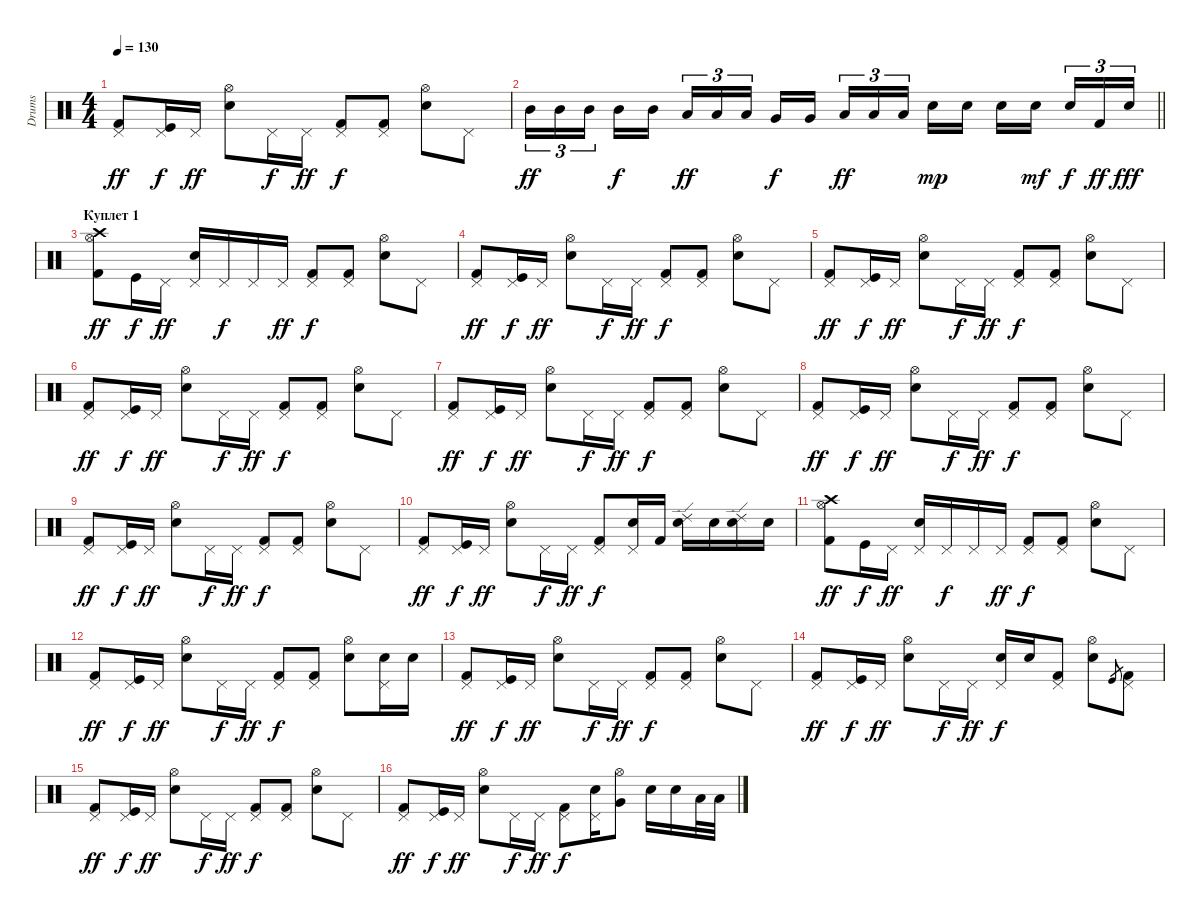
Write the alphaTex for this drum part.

\track ("Drums" "Drums") {instrument percussion}
\staff {score}
\articulation defaults
\ts (4 4)
\tempo 130
\clef neutral
\ks c
("Pedal Hi-Hat (hit)" "Kick (hit) 2").8{dy ff} ("Pedal Hi-Hat (hit)" "Kick (hit)").16{dy f} "Pedal Hi-Hat (hit)".16{dy ff} ("Hi-Hat (open)" "Snare (hit) 2").8 "Pedal Hi-Hat (hit)".16{dy f} "Pedal Hi-Hat (hit)".16{dy ff} ("Pedal Hi-Hat (hit)" "Kick (hit) 2").8{dy f} ("Pedal Hi-Hat (hit)" "Kick (hit) 2").8 ("Hi-Hat (open)" "Snare (hit) 2").8 "Pedal Hi-Hat (hit)".8 |
\barLineRight lightlight "Mid Tom (hit)".16{tu (3 2) dy ff} "Mid Tom (hit)".16{tu (3 2)} "Mid Tom (hit)".16{tu (3 2)} "Mid Tom (hit)".16{dy f} "Mid Tom (hit)".16 "Low Tom (hit)".16{tu (3 2) dy ff} "Low Tom (hit)".16{tu (3 2)} "Low Tom (hit)".16{tu (3 2)} "Very Low Tom (hit)".16{dy f} "Very Low Tom (hit)".16 "Low Tom (hit)".16{tu (3 2) dy ff} "Low Tom (hit)".16{tu (3 2)} "Low Tom (hit)".16{tu (3 2)} "Snare (hit) 2".16{dy mp} "Snare (hit) 2".16 "Snare (hit) 2".16 "Snare (hit) 2".16{dy mf} "Snare (hit) 2".16{tu (3 2) dy f} "Kick (hit) 2".16{tu (3 2) dy ff} "Snare (hit) 2".16{tu (3 2) dy fff}
|
\section ("" "Куплет 1")
("Crash high (hit)" "Kick (hit) 2" "Hi-Hat (open)").8{dy ff} "Kick (hit)".16{dy f} "Pedal Hi-Hat (hit)".16{dy ff} ("Pedal Hi-Hat (hit)" "Snare (hit) 2").16 "Pedal Hi-Hat (hit)".16{dy f} "Pedal Hi-Hat (hit)".16 "Pedal Hi-Hat (hit)".16{dy ff} ("Pedal Hi-Hat (hit)" "Kick (hit) 2").8{dy f} ("Pedal Hi-Hat (hit)" "Kick (hit) 2").8 ("Hi-Hat (open)" "Snare (hit) 2").8 "Pedal Hi-Hat (hit)".8 |
("Pedal Hi-Hat (hit)" "Kick (hit) 2").8{dy ff} ("Pedal Hi-Hat (hit)" "Kick (hit)").16{dy f} "Pedal Hi-Hat (hit)".16{dy ff} ("Hi-Hat (open)" "Snare (hit) 2").8 "Pedal Hi-Hat (hit)".16{dy f} "Pedal Hi-Hat (hit)".16{dy ff} ("Pedal Hi-Hat (hit)" "Kick (hit) 2").8{dy f} ("Pedal Hi-Hat (hit)" "Kick (hit) 2").8 ("Hi-Hat (open)" "Snare (hit) 2").8 "Pedal Hi-Hat (hit)".8 |
("Pedal Hi-Hat (hit)" "Kick (hit) 2").8{dy ff} ("Pedal Hi-Hat (hit)" "Kick (hit)").16{dy f} "Pedal Hi-Hat (hit)".16{dy ff} ("Hi-Hat (open)" "Snare (hit) 2").8 "Pedal Hi-Hat (hit)".16{dy f} "Pedal Hi-Hat (hit)".16{dy ff} ("Pedal Hi-Hat (hit)" "Kick (hit) 2").8{dy f} ("Pedal Hi-Hat (hit)" "Kick (hit) 2").8 ("Hi-Hat (open)" "Snare (hit) 2").8 "Pedal Hi-Hat (hit)".8 |
("Pedal Hi-Hat (hit)" "Kick (hit) 2").8{dy ff} ("Pedal Hi-Hat (hit)" "Kick (hit)").16{dy f} "Pedal Hi-Hat (hit)".16{dy ff} ("Hi-Hat (open)" "Snare (hit) 2").8 "Pedal Hi-Hat (hit)".16{dy f} "Pedal Hi-Hat (hit)".16{dy ff} ("Pedal Hi-Hat (hit)" "Kick (hit) 2").8{dy f} ("Pedal Hi-Hat (hit)" "Kick (hit) 2").8 ("Hi-Hat (open)" "Snare (hit) 2").8 "Pedal Hi-Hat (hit)".8 |
("Pedal Hi-Hat (hit)" "Kick (hit) 2").8{dy ff} ("Pedal Hi-Hat (hit)" "Kick (hit)").16{dy f} "Pedal Hi-Hat (hit)".16{dy ff} ("Hi-Hat (open)" "Snare (hit) 2").8 "Pedal Hi-Hat (hit)".16{dy f} "Pedal Hi-Hat (hit)".16{dy ff} ("Pedal Hi-Hat (hit)" "Kick (hit) 2").8{dy f} ("Pedal Hi-Hat (hit)" "Kick (hit) 2").8 ("Hi-Hat (open)" "Snare (hit) 2").8 "Pedal Hi-Hat (hit)".8 |
("Pedal Hi-Hat (hit)" "Kick (hit) 2").8{dy ff} ("Pedal Hi-Hat (hit)" "Kick (hit)").16{dy f} "Pedal Hi-Hat (hit)".16{dy ff} ("Hi-Hat (open)" "Snare (hit) 2").8 "Pedal Hi-Hat (hit)".16{dy f} "Pedal Hi-Hat (hit)".16{dy ff} ("Pedal Hi-Hat (hit)" "Kick (hit) 2").8{dy f} ("Pedal Hi-Hat (hit)" "Kick (hit) 2").8 ("Hi-Hat (open)" "Snare (hit) 2").8 "Pedal Hi-Hat (hit)".8 |
("Pedal Hi-Hat (hit)" "Kick (hit) 2").8{dy ff} ("Pedal Hi-Hat (hit)" "Kick (hit)").16{dy f} "Pedal Hi-Hat (hit)".16{dy ff} ("Hi-Hat (open)" "Snare (hit) 2").8 "Pedal Hi-Hat (hit)".16{dy f} "Pedal Hi-Hat (hit)".16{dy ff} ("Pedal Hi-Hat (hit)" "Kick (hit) 2").8{dy f} ("Pedal Hi-Hat (hit)" "Kick (hit) 2").8 ("Hi-Hat (open)" "Snare (hit) 2").8 "Pedal Hi-Hat (hit)".8 |
("Pedal Hi-Hat (hit)" "Kick (hit) 2").8{dy ff} ("Pedal Hi-Hat (hit)" "Kick (hit)").16{dy f} "Pedal Hi-Hat (hit)".16{dy ff} ("Hi-Hat (open)" "Snare (hit) 2").8 "Pedal Hi-Hat (hit)".16{dy f} "Pedal Hi-Hat (hit)".16{dy ff} ("Pedal Hi-Hat (hit)" "Kick (hit) 2").8{dy f} ("Pedal Hi-Hat (hit)" "Snare (hit) 2").16 "Kick (hit) 2".16 ("Ride (edge) 2" "Snare (hit) 2").16 "Snare (hit) 2".16 ("Ride (edge) 2" "Snare (hit) 2").16 "Snare (hit) 2".16 |
("Crash high (hit)" "Kick (hit) 2" "Hi-Hat (open)").8{dy ff} "Kick (hit)".16{dy f} "Pedal Hi-Hat (hit)".16{dy ff} ("Pedal Hi-Hat (hit)" "Snare (hit) 2").16 "Pedal Hi-Hat (hit)".16{dy f} "Pedal Hi-Hat (hit)".16 "Pedal Hi-Hat (hit)".16{dy ff} ("Pedal Hi-Hat (hit)" "Kick (hit) 2").8{dy f} ("Pedal Hi-Hat (hit)" "Kick (hit) 2").8 ("Hi-Hat (open)" "Snare (hit) 2").8 "Pedal Hi-Hat (hit)".8 |
("Pedal Hi-Hat (hit)" "Kick (hit) 2").8{dy ff} ("Pedal Hi-Hat (hit)" "Kick (hit)").16{dy f} "Pedal Hi-Hat (hit)".16{dy ff} ("Hi-Hat (open)" "Snare (hit) 2").8 "Pedal Hi-Hat (hit)".16{dy f} "Pedal Hi-Hat (hit)".16{dy ff} ("Pedal Hi-Hat (hit)" "Kick (hit) 2").8{dy f} ("Pedal Hi-Hat (hit)" "Kick (hit) 2").8 ("Hi-Hat (open)" "Snare (hit) 2").8 ("Pedal Hi-Hat (hit)" "Snare (hit) 2").16 "Snare (hit) 2".16 |
("Pedal Hi-Hat (hit)" "Kick (hit) 2").8{dy ff} ("Pedal Hi-Hat (hit)" "Kick (hit)").16{dy f} "Pedal Hi-Hat (hit)".16{dy ff} ("Hi-Hat (open)" "Snare (hit) 2").8 "Pedal Hi-Hat (hit)".16{dy f} "Pedal Hi-Hat (hit)".16{dy ff} ("Pedal Hi-Hat (hit)" "Kick (hit) 2").8{dy f} ("Pedal Hi-Hat (hit)" "Kick (hit) 2").8 ("Hi-Hat (open)" "Snare (hit) 2").8 "Pedal Hi-Hat (hit)".8 |
("Pedal Hi-Hat (hit)" "Kick (hit) 2").8{dy ff} ("Pedal Hi-Hat (hit)" "Kick (hit)").16{dy f} "Pedal Hi-Hat (hit)".16{dy ff} ("Hi-Hat (open)" "Snare (hit) 2").8 "Pedal Hi-Hat (hit)".16{dy f} "Pedal Hi-Hat (hit)".16{dy ff} ("Pedal Hi-Hat (hit)" "Snare (hit) 2").16{dy f} "Snare (hit) 2".16 ("Pedal Hi-Hat (hit)" "Kick (hit) 2").8 ("Hi-Hat (open)" "Snare (hit) 2").8 "Kick (hit)".8{gr} ("Pedal Hi-Hat (hit)" "Kick (hit) 2").8 |
("Pedal Hi-Hat (hit)" "Kick (hit) 2").8{dy ff} ("Pedal Hi-Hat (hit)" "Kick (hit)").16{dy f} "Pedal Hi-Hat (hit)".16{dy ff} ("Hi-Hat (open)" "Snare (hit) 2").8 "Pedal Hi-Hat (hit)".16{dy f} "Pedal Hi-Hat (hit)".16{dy ff} ("Pedal Hi-Hat (hit)" "Kick (hit) 2").8{dy f} ("Pedal Hi-Hat (hit)" "Kick (hit) 2").8 ("Hi-Hat (open)" "Snare (hit) 2").8 "Pedal Hi-Hat (hit)".8 |
("Pedal Hi-Hat (hit)" "Kick (hit) 2").8{dy ff} ("Pedal Hi-Hat (hit)" "Kick (hit)").16{dy f} "Pedal Hi-Hat (hit)".16{dy ff} ("Hi-Hat (open)" "Snare (hit) 2").8 "Pedal Hi-Hat (hit)".16{dy f} "Pedal Hi-Hat (hit)".16{dy ff} ("Pedal Hi-Hat (hit)" "Kick (hit) 2").8{dy f} ("Pedal Hi-Hat (hit)" "Snare (hit) 2").16 ("Hi-Hat (open)" "Very Low Tom (hit)").8 "Snare (hit) 2".16 "Snare (hit) 2".16 "Low Floor Tom (hit)".32 "Low Floor Tom (hit)".32
